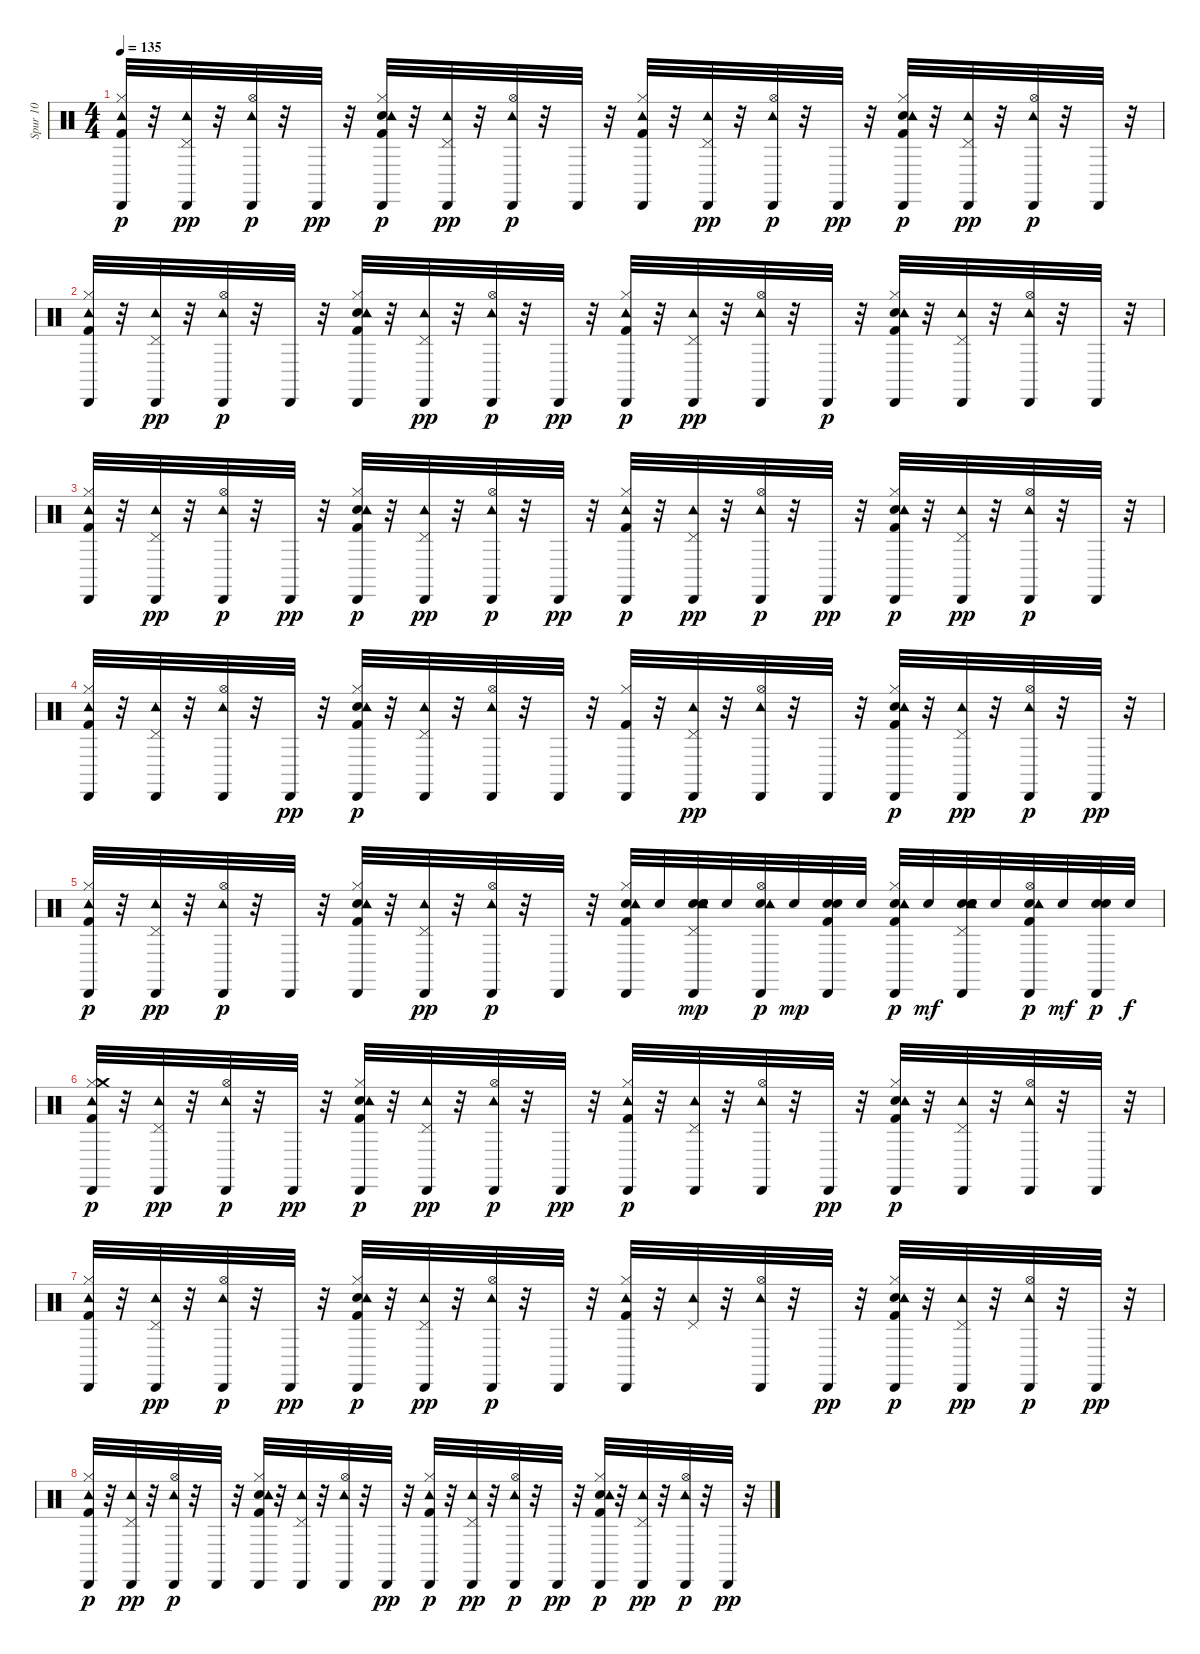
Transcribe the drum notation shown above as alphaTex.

\track ("Spur 10" "Spur 10") {instrument percussion}
\staff {score}
\articulation defaults
\ts (4 4)
\tempo 135
\clef neutral
\ks c
("Kick (hit) 2" "Hi-Hat (closed)" "Tambourine (hit)" "Cabasa (hit)").32{dy p} r.32 ("Pedal Hi-Hat (hit)" "Tambourine (hit)" "Cabasa (hit)").32{dy pp} r.32 ("Hi-Hat (open)" "Tambourine (hit)" "Cabasa (hit)").32{dy p} r.32 "Cabasa (hit)".32{dy pp} r.32 ("Kick (hit) 2" "Snare (hit) 2" "Hi-Hat (closed)" "Tambourine (hit)" "Cabasa (hit)").32{dy p} r.32 ("Pedal Hi-Hat (hit)" "Tambourine (hit)" "Cabasa (hit)").32{dy pp} r.32 ("Hi-Hat (open)" "Tambourine (hit)" "Cabasa (hit)").32{dy p} r.32 "Cabasa (hit)".32 r.32 ("Kick (hit) 2" "Hi-Hat (closed)" "Tambourine (hit)" "Cabasa (hit)").32 r.32 ("Pedal Hi-Hat (hit)" "Tambourine (hit)" "Cabasa (hit)").32{dy pp} r.32 ("Hi-Hat (open)" "Tambourine (hit)" "Cabasa (hit)").32{dy p} r.32 "Cabasa (hit)".32{dy pp} r.32 ("Kick (hit) 2" "Snare (hit) 2" "Hi-Hat (closed)" "Tambourine (hit)" "Cabasa (hit)").32{dy p} r.32 ("Pedal Hi-Hat (hit)" "Tambourine (hit)" "Cabasa (hit)").32{dy pp} r.32 ("Hi-Hat (open)" "Tambourine (hit)" "Cabasa (hit)").32{dy p} r.32 "Cabasa (hit)".32 r.32 |
("Kick (hit) 2" "Hi-Hat (closed)" "Tambourine (hit)" "Cabasa (hit)").32 r.32 ("Pedal Hi-Hat (hit)" "Tambourine (hit)" "Cabasa (hit)").32{dy pp} r.32 ("Hi-Hat (open)" "Tambourine (hit)" "Cabasa (hit)").32{dy p} r.32 "Cabasa (hit)".32 r.32 ("Kick (hit) 2" "Snare (hit) 2" "Hi-Hat (closed)" "Tambourine (hit)" "Cabasa (hit)").32 r.32 ("Pedal Hi-Hat (hit)" "Tambourine (hit)" "Cabasa (hit)").32{dy pp} r.32 ("Hi-Hat (open)" "Tambourine (hit)" "Cabasa (hit)").32{dy p} r.32 "Cabasa (hit)".32{dy pp} r.32 ("Kick (hit) 2" "Hi-Hat (closed)" "Tambourine (hit)" "Cabasa (hit)").32{dy p} r.32 ("Pedal Hi-Hat (hit)" "Tambourine (hit)" "Cabasa (hit)").32{dy pp} r.32 ("Hi-Hat (open)" "Tambourine (hit)" "Cabasa (hit)").32 r.32 "Cabasa (hit)".32{dy p} r.32 ("Kick (hit) 2" "Snare (hit) 2" "Hi-Hat (closed)" "Tambourine (hit)" "Cabasa (hit)").32 r.32 ("Pedal Hi-Hat (hit)" "Tambourine (hit)" "Cabasa (hit)").32 r.32 ("Hi-Hat (open)" "Tambourine (hit)" "Cabasa (hit)").32 r.32 "Cabasa (hit)".32 r.32 |
("Kick (hit) 2" "Hi-Hat (closed)" "Tambourine (hit)" "Cabasa (hit)").32 r.32 ("Pedal Hi-Hat (hit)" "Tambourine (hit)" "Cabasa (hit)").32{dy pp} r.32 ("Hi-Hat (open)" "Tambourine (hit)" "Cabasa (hit)").32{dy p} r.32 "Cabasa (hit)".32{dy pp} r.32 ("Kick (hit) 2" "Snare (hit) 2" "Hi-Hat (closed)" "Tambourine (hit)" "Cabasa (hit)").32{dy p} r.32 ("Pedal Hi-Hat (hit)" "Tambourine (hit)" "Cabasa (hit)").32{dy pp} r.32 ("Hi-Hat (open)" "Tambourine (hit)" "Cabasa (hit)").32{dy p} r.32 "Cabasa (hit)".32{dy pp} r.32 ("Kick (hit) 2" "Hi-Hat (closed)" "Tambourine (hit)" "Cabasa (hit)").32{dy p} r.32 ("Pedal Hi-Hat (hit)" "Tambourine (hit)" "Cabasa (hit)").32{dy pp} r.32 ("Hi-Hat (open)" "Tambourine (hit)" "Cabasa (hit)").32{dy p} r.32 "Cabasa (hit)".32{dy pp} r.32 ("Kick (hit) 2" "Snare (hit) 2" "Hi-Hat (closed)" "Tambourine (hit)" "Cabasa (hit)").32{dy p} r.32 ("Pedal Hi-Hat (hit)" "Tambourine (hit)" "Cabasa (hit)").32{dy pp} r.32 ("Hi-Hat (open)" "Tambourine (hit)" "Cabasa (hit)").32{dy p} r.32 "Cabasa (hit)".32 r.32 |
("Kick (hit) 2" "Hi-Hat (closed)" "Tambourine (hit)" "Cabasa (hit)").32 r.32 ("Pedal Hi-Hat (hit)" "Tambourine (hit)" "Cabasa (hit)").32 r.32 ("Hi-Hat (open)" "Tambourine (hit)" "Cabasa (hit)").32 r.32 "Cabasa (hit)".32{dy pp} r.32 ("Kick (hit) 2" "Snare (hit) 2" "Hi-Hat (closed)" "Tambourine (hit)" "Cabasa (hit)").32{dy p} r.32 ("Pedal Hi-Hat (hit)" "Tambourine (hit)" "Cabasa (hit)").32 r.32 ("Hi-Hat (open)" "Tambourine (hit)" "Cabasa (hit)").32 r.32 "Cabasa (hit)".32 r.32 ("Kick (hit) 2" "Hi-Hat (closed)" "Cabasa (hit)").32 r.32 ("Pedal Hi-Hat (hit)" "Tambourine (hit)" "Cabasa (hit)").32{dy pp} r.32 ("Hi-Hat (open)" "Tambourine (hit)" "Cabasa (hit)").32 r.32 "Cabasa (hit)".32 r.32 ("Kick (hit) 2" "Snare (hit) 2" "Hi-Hat (closed)" "Tambourine (hit)" "Cabasa (hit)").32{dy p} r.32 ("Pedal Hi-Hat (hit)" "Tambourine (hit)" "Cabasa (hit)").32{dy pp} r.32 ("Hi-Hat (open)" "Tambourine (hit)" "Cabasa (hit)").32{dy p} r.32 "Cabasa (hit)".32{dy pp} r.32 |
("Kick (hit) 2" "Hi-Hat (closed)" "Tambourine (hit)" "Cabasa (hit)").32{dy p} r.32 ("Pedal Hi-Hat (hit)" "Tambourine (hit)" "Cabasa (hit)").32{dy pp} r.32 ("Hi-Hat (open)" "Tambourine (hit)" "Cabasa (hit)").32{dy p} r.32 "Cabasa (hit)".32 r.32 ("Kick (hit) 2" "Snare (hit) 2" "Hi-Hat (closed)" "Tambourine (hit)" "Cabasa (hit)").32 r.32 ("Pedal Hi-Hat (hit)" "Tambourine (hit)" "Cabasa (hit)").32{dy pp} r.32 ("Hi-Hat (open)" "Tambourine (hit)" "Cabasa (hit)").32{dy p} r.32 "Cabasa (hit)".32 r.32 ("Kick (hit) 2" "Snare (hit) 2" "Hi-Hat (closed)" "Tambourine (hit)" "Cabasa (hit)").32 "Snare (hit) 2".32 ("Snare (hit) 2" "Snare (hit) 2" "Pedal Hi-Hat (hit)" "Tambourine (hit)" "Cabasa (hit)" "Snare (hit) 2").32{dy mp} "Snare (hit) 2".32 ("Snare (hit) 2" "Hi-Hat (open)" "Tambourine (hit)" "Cabasa (hit)").32{dy p} "Snare (hit) 2".32{dy mp} ("Snare (hit) 2" "Kick (hit) 2" "Cabasa (hit)" "Snare (hit) 2").32 "Snare (hit) 2".32 ("Kick (hit) 2" "Snare (hit) 2" "Hi-Hat (closed)" "Tambourine (hit)" "Cabasa (hit)").32{dy p} "Snare (hit) 2".32{dy mf} ("Snare (hit) 2" "Snare (hit) 2" "Pedal Hi-Hat (hit)" "Tambourine (hit)" "Cabasa (hit)" "Snare (hit) 2").32 "Snare (hit) 2".32 ("Kick (hit) 2" "Snare (hit) 2" "Hi-Hat (open)" "Tambourine (hit)" "Cabasa (hit)").32{dy p} "Snare (hit) 2".32{dy mf} ("Snare (hit) 2" "Cabasa (hit)" "Snare (hit) 2").32{dy p} "Snare (hit) 2".32{dy f} |
("Kick (hit) 2" "Hi-Hat (closed)" "Tambourine (hit)" "Crash medium (hit)" "Cabasa (hit)").32{dy p} r.32 ("Pedal Hi-Hat (hit)" "Tambourine (hit)" "Cabasa (hit)").32{dy pp} r.32 ("Hi-Hat (open)" "Tambourine (hit)" "Cabasa (hit)").32{dy p} r.32 "Cabasa (hit)".32{dy pp} r.32 ("Kick (hit) 2" "Snare (hit) 2" "Hi-Hat (closed)" "Tambourine (hit)" "Cabasa (hit)").32{dy p} r.32 ("Pedal Hi-Hat (hit)" "Tambourine (hit)" "Cabasa (hit)").32{dy pp} r.32 ("Hi-Hat (open)" "Tambourine (hit)" "Cabasa (hit)").32{dy p} r.32 "Cabasa (hit)".32{dy pp} r.32 ("Kick (hit) 2" "Hi-Hat (closed)" "Tambourine (hit)" "Cabasa (hit)").32{dy p} r.32 ("Pedal Hi-Hat (hit)" "Tambourine (hit)" "Cabasa (hit)").32 r.32 ("Hi-Hat (open)" "Tambourine (hit)" "Cabasa (hit)").32 r.32 "Cabasa (hit)".32{dy pp} r.32 ("Kick (hit) 2" "Snare (hit) 2" "Hi-Hat (closed)" "Tambourine (hit)" "Cabasa (hit)").32{dy p} r.32 ("Pedal Hi-Hat (hit)" "Tambourine (hit)" "Cabasa (hit)").32 r.32 ("Hi-Hat (open)" "Tambourine (hit)" "Cabasa (hit)").32 r.32 "Cabasa (hit)".32 r.32 |
("Kick (hit) 2" "Hi-Hat (closed)" "Tambourine (hit)" "Cabasa (hit)").32 r.32 ("Pedal Hi-Hat (hit)" "Tambourine (hit)" "Cabasa (hit)").32{dy pp} r.32 ("Hi-Hat (open)" "Tambourine (hit)" "Cabasa (hit)").32{dy p} r.32 "Cabasa (hit)".32{dy pp} r.32 ("Kick (hit) 2" "Snare (hit) 2" "Hi-Hat (closed)" "Tambourine (hit)" "Cabasa (hit)").32{dy p} r.32 ("Pedal Hi-Hat (hit)" "Tambourine (hit)" "Cabasa (hit)").32{dy pp} r.32 ("Hi-Hat (open)" "Tambourine (hit)" "Cabasa (hit)").32{dy p} r.32 "Cabasa (hit)".32 r.32 ("Kick (hit) 2" "Hi-Hat (closed)" "Tambourine (hit)" "Cabasa (hit)").32 r.32 ("Pedal Hi-Hat (hit)" "Tambourine (hit)").32 r.32 ("Hi-Hat (open)" "Tambourine (hit)" "Cabasa (hit)").32 r.32 "Cabasa (hit)".32{dy pp} r.32 ("Kick (hit) 2" "Snare (hit) 2" "Hi-Hat (closed)" "Tambourine (hit)" "Cabasa (hit)").32{dy p} r.32 ("Pedal Hi-Hat (hit)" "Tambourine (hit)" "Cabasa (hit)").32{dy pp} r.32 ("Hi-Hat (open)" "Tambourine (hit)" "Cabasa (hit)").32{dy p} r.32 "Cabasa (hit)".32{dy pp} r.32 |
("Kick (hit) 2" "Hi-Hat (closed)" "Tambourine (hit)" "Cabasa (hit)").32{dy p} r.32 ("Pedal Hi-Hat (hit)" "Tambourine (hit)" "Cabasa (hit)").32{dy pp} r.32 ("Hi-Hat (open)" "Tambourine (hit)" "Cabasa (hit)").32{dy p} r.32 "Cabasa (hit)".32 r.32 ("Kick (hit) 2" "Snare (hit) 2" "Hi-Hat (closed)" "Tambourine (hit)" "Cabasa (hit)").32 r.32 ("Pedal Hi-Hat (hit)" "Tambourine (hit)" "Cabasa (hit)").32 r.32 ("Hi-Hat (open)" "Tambourine (hit)" "Cabasa (hit)").32 r.32 "Cabasa (hit)".32{dy pp} r.32 ("Kick (hit) 2" "Hi-Hat (closed)" "Tambourine (hit)" "Cabasa (hit)").32{dy p} r.32 ("Pedal Hi-Hat (hit)" "Tambourine (hit)" "Cabasa (hit)").32{dy pp} r.32 ("Hi-Hat (open)" "Tambourine (hit)" "Cabasa (hit)").32{dy p} r.32 "Cabasa (hit)".32{dy pp} r.32 ("Kick (hit) 2" "Snare (hit) 2" "Hi-Hat (closed)" "Tambourine (hit)" "Cabasa (hit)").32{dy p} r.32 ("Pedal Hi-Hat (hit)" "Tambourine (hit)" "Cabasa (hit)").32{dy pp} r.32 ("Hi-Hat (open)" "Tambourine (hit)" "Cabasa (hit)").32{dy p} r.32 "Cabasa (hit)".32{dy pp} r.32
